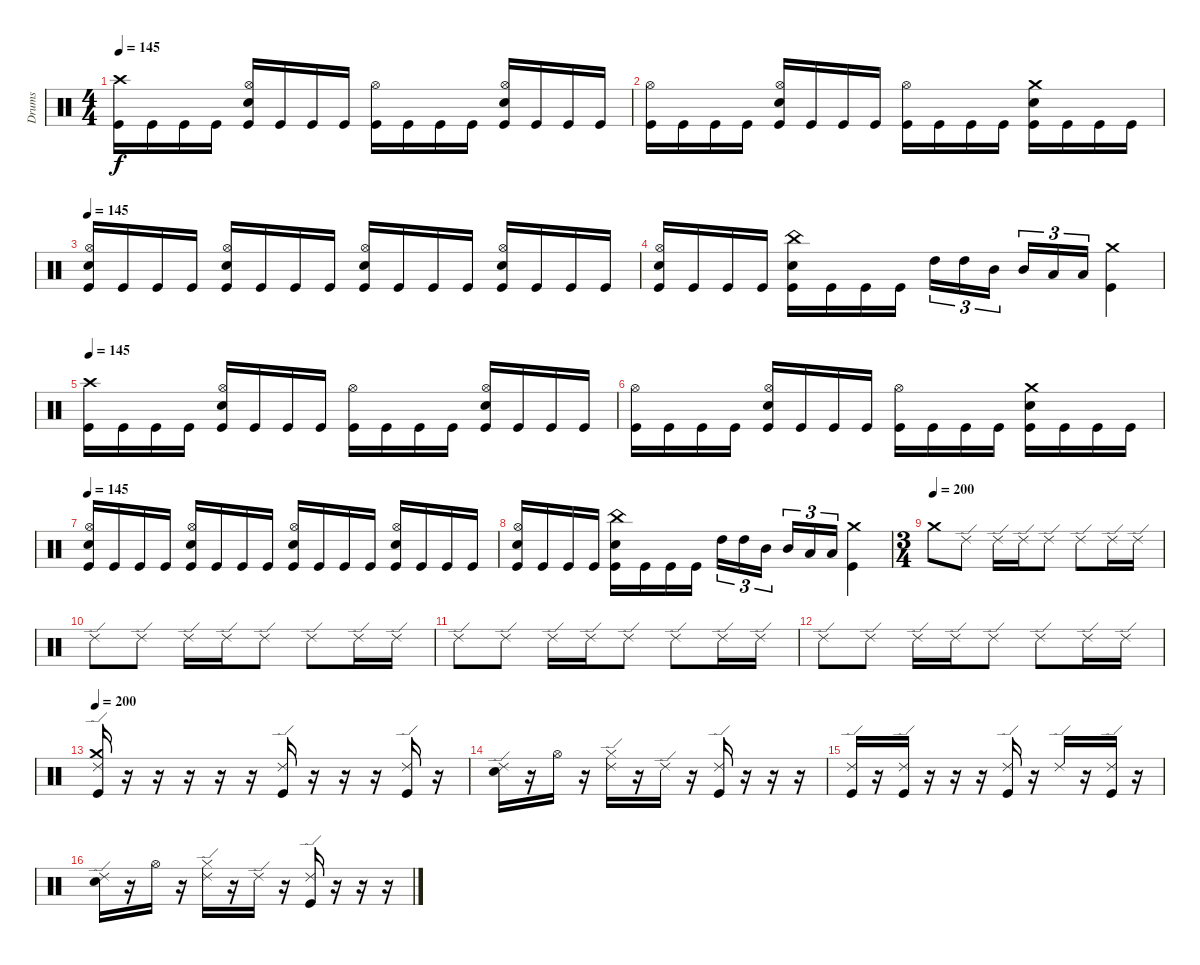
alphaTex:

\track ("Drums" "Drums") {instrument percussion}
\staff {score}
\articulation defaults
\ts (4 4)
\tempo 145
\clef neutral
\ks c
("Crash high (hit)" "Kick (hit)").16{dy f} "Kick (hit)".16 "Kick (hit)".16 "Kick (hit)".16 ("Hi-Hat (open)" "Electric Snare (hit)" "Kick (hit)").16 "Kick (hit)".16 "Kick (hit)".16 "Kick (hit)".16 ("Hi-Hat (open)" "Kick (hit)").16 "Kick (hit)".16 "Kick (hit)".16 "Kick (hit)".16 ("Hi-Hat (open)" "Electric Snare (hit)" "Kick (hit)").16 "Kick (hit)".16 "Kick (hit)".16 "Kick (hit)".16 |
("Hi-Hat (open)" "Kick (hit)").16 "Kick (hit)".16 "Kick (hit)".16 "Kick (hit)".16 ("Hi-Hat (open)" "Electric Snare (hit)" "Kick (hit)").16 "Kick (hit)".16 "Kick (hit)".16 "Kick (hit)".16 ("Hi-Hat (open)" "Kick (hit)").16 "Kick (hit)".16 "Kick (hit)".16 "Kick (hit)".16 ("Crash medium (hit)" "Electric Snare (hit)" "Kick (hit)").16 "Kick (hit)".16 "Kick (hit)".16 "Kick (hit)".16 |
\tempo 145
("Hi-Hat (open)" "Electric Snare (hit)" "Kick (hit)").16 "Kick (hit)".16 "Kick (hit)".16 "Kick (hit)".16 ("Hi-Hat (open)" "Electric Snare (hit)" "Kick (hit)").16 "Kick (hit)".16 "Kick (hit)".16 "Kick (hit)".16 ("Hi-Hat (open)" "Electric Snare (hit)" "Kick (hit)").16 "Kick (hit)".16 "Kick (hit)".16 "Kick (hit)".16 ("Hi-Hat (open)" "Electric Snare (hit)" "Kick (hit)").16 "Kick (hit)".16 "Kick (hit)".16 "Kick (hit)".16 |
("Hi-Hat (open)" "Electric Snare (hit)" "Kick (hit)").16 "Kick (hit)".16 "Kick (hit)".16 "Kick (hit)".16 ("China (hit)" "Electric Snare (hit)" "Kick (hit)").16 "Kick (hit)".16 "Kick (hit)".16 "Kick (hit)".16 "High Tom (hit)".16{tu (3 2)} "High Tom (hit)".16{tu (3 2)} "Mid Tom (hit)".16{tu (3 2)} "Mid Tom (hit)".16{tu (3 2)} "Low Tom (hit)".16{tu (3 2)} "Low Tom (hit)".16{tu (3 2)} ("Kick (hit)" "Crash medium (hit)").4 |
\tempo 145
("Crash high (hit)" "Kick (hit)").16 "Kick (hit)".16 "Kick (hit)".16 "Kick (hit)".16 ("Hi-Hat (open)" "Electric Snare (hit)" "Kick (hit)").16 "Kick (hit)".16 "Kick (hit)".16 "Kick (hit)".16 ("Hi-Hat (open)" "Kick (hit)").16 "Kick (hit)".16 "Kick (hit)".16 "Kick (hit)".16 ("Hi-Hat (open)" "Electric Snare (hit)" "Kick (hit)").16 "Kick (hit)".16 "Kick (hit)".16 "Kick (hit)".16 |
("Hi-Hat (open)" "Kick (hit)").16 "Kick (hit)".16 "Kick (hit)".16 "Kick (hit)".16 ("Hi-Hat (open)" "Electric Snare (hit)" "Kick (hit)").16 "Kick (hit)".16 "Kick (hit)".16 "Kick (hit)".16 ("Hi-Hat (open)" "Kick (hit)").16 "Kick (hit)".16 "Kick (hit)".16 "Kick (hit)".16 ("Crash medium (hit)" "Electric Snare (hit)" "Kick (hit)").16 "Kick (hit)".16 "Kick (hit)".16 "Kick (hit)".16 |
\tempo 145
("Hi-Hat (open)" "Electric Snare (hit)" "Kick (hit)").16 "Kick (hit)".16 "Kick (hit)".16 "Kick (hit)".16 ("Hi-Hat (open)" "Electric Snare (hit)" "Kick (hit)").16 "Kick (hit)".16 "Kick (hit)".16 "Kick (hit)".16 ("Hi-Hat (open)" "Electric Snare (hit)" "Kick (hit)").16 "Kick (hit)".16 "Kick (hit)".16 "Kick (hit)".16 ("Hi-Hat (open)" "Electric Snare (hit)" "Kick (hit)").16 "Kick (hit)".16 "Kick (hit)".16 "Kick (hit)".16 |
("Hi-Hat (open)" "Electric Snare (hit)" "Kick (hit)").16 "Kick (hit)".16 "Kick (hit)".16 "Kick (hit)".16 ("China (hit)" "Electric Snare (hit)" "Kick (hit)").16 "Kick (hit)".16 "Kick (hit)".16 "Kick (hit)".16 "High Tom (hit)".16{tu (3 2)} "High Tom (hit)".16{tu (3 2)} "Mid Tom (hit)".16{tu (3 2)} "Mid Tom (hit)".16{tu (3 2)} "Low Tom (hit)".16{tu (3 2)} "Low Tom (hit)".16{tu (3 2)} ("Kick (hit)" "Crash medium (hit)").4 |
\ts (3 4)
\tempo (200)
"Crash medium (hit)".8 "Ride (edge) 2".8 "Ride (edge) 2".16 "Ride (edge) 2".16 "Ride (edge) 2".8 "Ride (edge) 2".8 "Ride (edge) 2".16 "Ride (edge) 2".16 |
"Ride (edge) 2".8 "Ride (edge) 2".8 "Ride (edge) 2".16 "Ride (edge) 2".16 "Ride (edge) 2".8 "Ride (edge) 2".8 "Ride (edge) 2".16 "Ride (edge) 2".16 |
"Ride (edge) 2".8 "Ride (edge) 2".8 "Ride (edge) 2".16 "Ride (edge) 2".16 "Ride (edge) 2".8 "Ride (edge) 2".8 "Ride (edge) 2".16 "Ride (edge) 2".16 |
"Ride (edge) 2".8 "Ride (edge) 2".8 "Ride (edge) 2".16 "Ride (edge) 2".16 "Ride (edge) 2".8 "Ride (edge) 2".8 "Ride (edge) 2".16 "Ride (edge) 2".16 |
\tempo 200
("Ride (edge) 2" "Kick (hit)" "Crash medium (hit)").16 r.16 r.16 r.16 r.16 r.16 ("Ride (edge) 2" "Kick (hit)").16 r.16 r.16 r.16 ("Ride (edge) 2" "Kick (hit)").16 r.16 |
("Ride (edge) 2" "Electric Snare (hit)").16 r.16 "Hi-Hat (open)".16 r.16 ("Ride (edge) 2" "Hi-Hat (closed)").16 r.16 "Ride (edge) 2".16 r.16 ("Ride (edge) 2" "Kick (hit)").16 r.16 r.16 r.16 |
("Ride (edge) 2" "Kick (hit)").16 r.16 ("Ride (edge) 2" "Kick (hit)").16 r.16 r.16 r.16 ("Ride (edge) 2" "Kick (hit)").16 r.16 "Ride (edge) 2".16 r.16 ("Ride (edge) 2" "Kick (hit)").16 r.16 |
("Ride (edge) 2" "Electric Snare (hit)").16 r.16 "Hi-Hat (open)".16 r.16 ("Ride (edge) 2" "Hi-Hat (closed)").16 r.16 "Ride (edge) 2".16 r.16 ("Ride (edge) 2" "Kick (hit)").16 r.16 r.16 r.16
